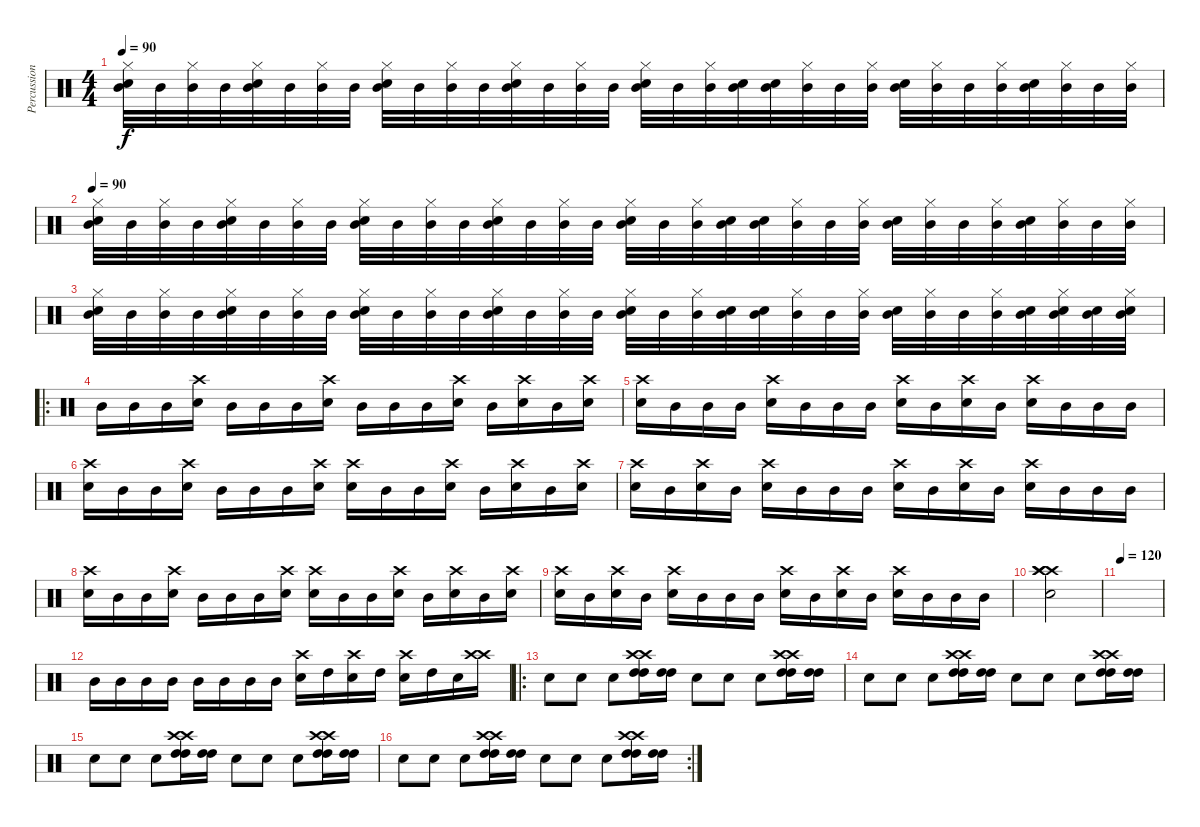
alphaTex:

\track ("Percussions" "Percussion") {instrument percussion}
\staff {score}
\articulation defaults
\ts (4 4)
\tempo 90
\clef neutral
\ks c
("Hi-Hat (closed)" "Snare (hit) 2" "Mid Tom (hit)").32{dy f} "Mid Tom (hit)".32 ("Hi-Hat (closed)" "Mid Tom (hit)").32 "Mid Tom (hit)".32 ("Hi-Hat (closed)" "Snare (hit) 2" "Mid Tom (hit)").32 "Mid Tom (hit)".32 ("Hi-Hat (closed)" "Mid Tom (hit)").32 "Mid Tom (hit)".32 ("Hi-Hat (closed)" "Snare (hit) 2" "Mid Tom (hit)").32 "Mid Tom (hit)".32 ("Hi-Hat (closed)" "Mid Tom (hit)").32 "Mid Tom (hit)".32 ("Hi-Hat (closed)" "Snare (hit) 2" "Mid Tom (hit)").32 "Mid Tom (hit)".32 ("Hi-Hat (closed)" "Mid Tom (hit)").32 "Mid Tom (hit)".32 ("Hi-Hat (closed)" "Snare (hit) 2" "Mid Tom (hit)").32 "Mid Tom (hit)".32 ("Hi-Hat (closed)" "Mid Tom (hit)").32 ("Snare (hit)" "Mid Tom (hit)").32 ("Snare (hit) 2" "Mid Tom (hit)").32 ("Hi-Hat (closed)" "Mid Tom (hit)").32 "Mid Tom (hit)".32 ("Hi-Hat (closed)" "Mid Tom (hit)").32 ("Snare (hit) 2" "Mid Tom (hit)").32 ("Hi-Hat (closed)" "Mid Tom (hit)").32 "Mid Tom (hit)".32 ("Hi-Hat (closed)" "Mid Tom (hit)").32 ("Snare (hit) 2" "Mid Tom (hit)").32 ("Hi-Hat (closed)" "Mid Tom (hit)").32 "Mid Tom (hit)".32 ("Hi-Hat (closed)" "Mid Tom (hit)").32 |
\tempo 90
("Hi-Hat (closed)" "Snare (hit) 2" "Mid Tom (hit)").32 "Mid Tom (hit)".32 ("Hi-Hat (closed)" "Mid Tom (hit)").32 "Mid Tom (hit)".32 ("Hi-Hat (closed)" "Snare (hit) 2" "Mid Tom (hit)").32 "Mid Tom (hit)".32 ("Hi-Hat (closed)" "Mid Tom (hit)").32 "Mid Tom (hit)".32 ("Hi-Hat (closed)" "Snare (hit) 2" "Mid Tom (hit)").32 "Mid Tom (hit)".32 ("Hi-Hat (closed)" "Mid Tom (hit)").32 "Mid Tom (hit)".32 ("Hi-Hat (closed)" "Snare (hit) 2" "Mid Tom (hit)").32 "Mid Tom (hit)".32 ("Hi-Hat (closed)" "Mid Tom (hit)").32 "Mid Tom (hit)".32 ("Hi-Hat (closed)" "Snare (hit) 2" "Mid Tom (hit)").32 "Mid Tom (hit)".32 ("Hi-Hat (closed)" "Mid Tom (hit)").32 ("Snare (hit)" "Mid Tom (hit)").32 ("Snare (hit) 2" "Mid Tom (hit)").32 ("Hi-Hat (closed)" "Mid Tom (hit)").32 "Mid Tom (hit)".32 ("Hi-Hat (closed)" "Mid Tom (hit)").32 ("Snare (hit) 2" "Mid Tom (hit)").32 ("Hi-Hat (closed)" "Mid Tom (hit)").32 "Mid Tom (hit)".32 ("Hi-Hat (closed)" "Mid Tom (hit)").32 ("Snare (hit) 2" "Mid Tom (hit)").32 ("Hi-Hat (closed)" "Mid Tom (hit)").32 "Mid Tom (hit)".32 ("Hi-Hat (closed)" "Mid Tom (hit)").32 |
("Hi-Hat (closed)" "Snare (hit) 2" "Mid Tom (hit)").32 "Mid Tom (hit)".32 ("Hi-Hat (closed)" "Mid Tom (hit)").32 "Mid Tom (hit)".32 ("Hi-Hat (closed)" "Snare (hit) 2" "Mid Tom (hit)").32 "Mid Tom (hit)".32 ("Hi-Hat (closed)" "Mid Tom (hit)").32 "Mid Tom (hit)".32 ("Hi-Hat (closed)" "Snare (hit) 2" "Mid Tom (hit)").32 "Mid Tom (hit)".32 ("Hi-Hat (closed)" "Mid Tom (hit)").32 "Mid Tom (hit)".32 ("Hi-Hat (closed)" "Snare (hit) 2" "Mid Tom (hit)").32 "Mid Tom (hit)".32 ("Hi-Hat (closed)" "Mid Tom (hit)").32 "Mid Tom (hit)".32 ("Hi-Hat (closed)" "Snare (hit) 2" "Mid Tom (hit)").32 "Mid Tom (hit)".32 ("Hi-Hat (closed)" "Mid Tom (hit)").32 ("Snare (hit)" "Mid Tom (hit)").32 ("Snare (hit) 2" "Mid Tom (hit)").32 ("Hi-Hat (closed)" "Mid Tom (hit)").32 "Mid Tom (hit)".32 ("Hi-Hat (closed)" "Mid Tom (hit)").32 ("Snare (hit) 2" "Mid Tom (hit)").32 ("Hi-Hat (closed)" "Mid Tom (hit)").32 "Mid Tom (hit)".32 ("Hi-Hat (closed)" "Mid Tom (hit)").32 ("Snare (hit) 2" "Mid Tom (hit)").32 ("Hi-Hat (closed)" "Snare (hit) 2" "Mid Tom (hit)").32 ("Snare (hit) 2" "Mid Tom (hit)").32 ("Hi-Hat (closed)" "Snare (hit) 2" "Mid Tom (hit)").32 |
\ro "Mid Tom (hit)".16 "Mid Tom (hit)".16 "Mid Tom (hit)".16
("Crash high (hit)" "Snare (hit) 2").16 "Mid Tom (hit)".16 "Mid Tom (hit)".16 "Mid Tom (hit)".16 ("Crash high (hit)" "Snare (hit) 2").16 "Mid Tom (hit)".16 "Mid Tom (hit)".16 "Mid Tom (hit)".16 ("Snare (hit) 2" "Crash high (hit)").16 "Mid Tom (hit)".16 ("Crash high (hit)" "Snare (hit) 2").16 "Mid Tom (hit)".16 ("Crash high (hit)" "Snare (hit) 2").16 |
("Crash high (hit)" "Snare (hit) 2").16 "Mid Tom (hit)".16 "Mid Tom (hit)".16 "Mid Tom (hit)".16 ("Crash high (hit)" "Snare (hit) 2").16 "Mid Tom (hit)".16 "Mid Tom (hit)".16 "Mid Tom (hit)".16 ("Crash high (hit)" "Snare (hit) 2").16 "Mid Tom (hit)".16 ("Crash high (hit)" "Snare (hit) 2").16 "Mid Tom (hit)".16 ("Crash high (hit)" "Snare (hit) 2").16 "Mid Tom (hit)".16 "Mid Tom (hit)".16 "Mid Tom (hit)".16 |
("Crash high (hit)" "Snare (hit) 2").16 "Mid Tom (hit)".16 "Mid Tom (hit)".16 ("Crash high (hit)" "Snare (hit) 2").16 "Mid Tom (hit)".16 "Mid Tom (hit)".16 "Mid Tom (hit)".16 ("Crash high (hit)" "Snare (hit) 2").16 ("Crash high (hit)" "Snare (hit) 2").16 "Mid Tom (hit)".16 "Mid Tom (hit)".16 ("Crash high (hit)" "Snare (hit) 2").16 "Mid Tom (hit)".16 ("Crash high (hit)" "Snare (hit) 2").16 "Mid Tom (hit)".16 ("Crash high (hit)" "Snare (hit) 2").16 |
("Snare (hit) 2" "Crash high (hit)").16 "Mid Tom (hit)".16 ("Snare (hit) 2" "Crash high (hit)").16 "Mid Tom (hit)".16 ("Crash high (hit)" "Snare (hit) 2").16 "Mid Tom (hit)".16 "Mid Tom (hit)".16 "Mid Tom (hit)".16 ("Crash high (hit)" "Snare (hit) 2").16 "Mid Tom (hit)".16 ("Snare (hit) 2" "Crash high (hit)").16 "Mid Tom (hit)".16 ("Crash high (hit)" "Snare (hit) 2").16 "Mid Tom (hit)".16 "Mid Tom (hit)".16 "Mid Tom (hit)".16 |
("Crash high (hit)" "Snare (hit) 2").16 "Mid Tom (hit)".16 "Mid Tom (hit)".16 ("Crash high (hit)" "Snare (hit) 2").16 "Mid Tom (hit)".16 "Mid Tom (hit)".16 "Mid Tom (hit)".16 ("Crash high (hit)" "Snare (hit) 2").16 ("Crash high (hit)" "Snare (hit) 2").16 "Mid Tom (hit)".16 "Mid Tom (hit)".16 ("Crash high (hit)" "Snare (hit) 2").16 "Mid Tom (hit)".16 ("Crash high (hit)" "Snare (hit) 2").16 "Mid Tom (hit)".16 ("Crash high (hit)" "Snare (hit) 2").16 |
("Snare (hit) 2" "Crash high (hit)").16 "Mid Tom (hit)".16 ("Snare (hit) 2" "Crash high (hit)").16 "Mid Tom (hit)".16 ("Crash high (hit)" "Snare (hit) 2").16 "Mid Tom (hit)".16 "Mid Tom (hit)".16 "Mid Tom (hit)".16 ("Crash high (hit)" "Snare (hit) 2").16 "Mid Tom (hit)".16 ("Snare (hit) 2" "Crash high (hit)").16 "Mid Tom (hit)".16 ("Crash high (hit)" "Snare (hit) 2").16 "Mid Tom (hit)".16 "Mid Tom (hit)".16 "Mid Tom (hit)".16 |
("Crash high (hit)" "Crash high (hit)" "Crash high (hit)" "Snare (hit) 2").2 |
\tempo 120
|
"Mid Tom (hit)".16{volume 16} "Mid Tom (hit)".16 "Mid Tom (hit)".16 "Mid Tom (hit)".16 "Mid Tom (hit)".16 "Mid Tom (hit)".16 "Mid Tom (hit)".16 "Mid Tom (hit)".16 ("Snare (hit) 2" "Crash high (hit)").16 "High Tom (hit)".16 ("Snare (hit) 2" "Crash high (hit)").16 "High Tom (hit)".16 ("Snare (hit) 2" "Crash high (hit)").16 "High Tom (hit)".16 "Snare (hit) 2".16 ("Crash high (hit)" "Crash high (hit)").16 |
\ro "Snare (hit) 2".8 "Snare (hit) 2".8 "Snare (hit) 2".8
("Crash high (hit)" "Crash high (hit)" "High Tom (hit)" "High Tom (hit)").16 ("High Tom (hit)" "High Tom (hit)").16 "Snare (hit) 2".8 "Snare (hit) 2".8 "Snare (hit) 2".8 ("Crash high (hit)" "Crash high (hit)" "High Tom (hit)" "High Tom (hit)").16 ("High Tom (hit)" "High Tom (hit)").16 |
"Snare (hit) 2".8 "Snare (hit) 2".8 "Snare (hit) 2".8 ("Crash high (hit)" "Crash high (hit)" "High Tom (hit)" "High Tom (hit)").16 ("High Tom (hit)" "High Tom (hit)").16 "Snare (hit) 2".8 "Snare (hit) 2".8 "Snare (hit) 2".8 ("Crash high (hit)" "Crash high (hit)" "High Tom (hit)" "High Tom (hit)").16 ("High Tom (hit)" "High Tom (hit)").16 |
"Snare (hit) 2".8 "Snare (hit) 2".8 "Snare (hit) 2".8 ("Crash high (hit)" "Crash high (hit)" "High Tom (hit)" "High Tom (hit)").16 ("High Tom (hit)" "High Tom (hit)").16 "Snare (hit) 2".8 "Snare (hit) 2".8 "Snare (hit) 2".8 ("Crash high (hit)" "Crash high (hit)" "High Tom (hit)" "High Tom (hit)").16 ("High Tom (hit)" "High Tom (hit)").16 |
\rc 2 "Snare (hit) 2".8 "Snare (hit) 2".8 "Snare (hit) 2".8
("Crash high (hit)" "Crash high (hit)" "High Tom (hit)" "High Tom (hit)").16 ("High Tom (hit)" "High Tom (hit)").16 "Snare (hit) 2".8 "Snare (hit) 2".8 "Snare (hit) 2".8 ("Crash high (hit)" "Crash high (hit)" "High Tom (hit)" "High Tom (hit)").16 ("High Tom (hit)" "High Tom (hit)").16
